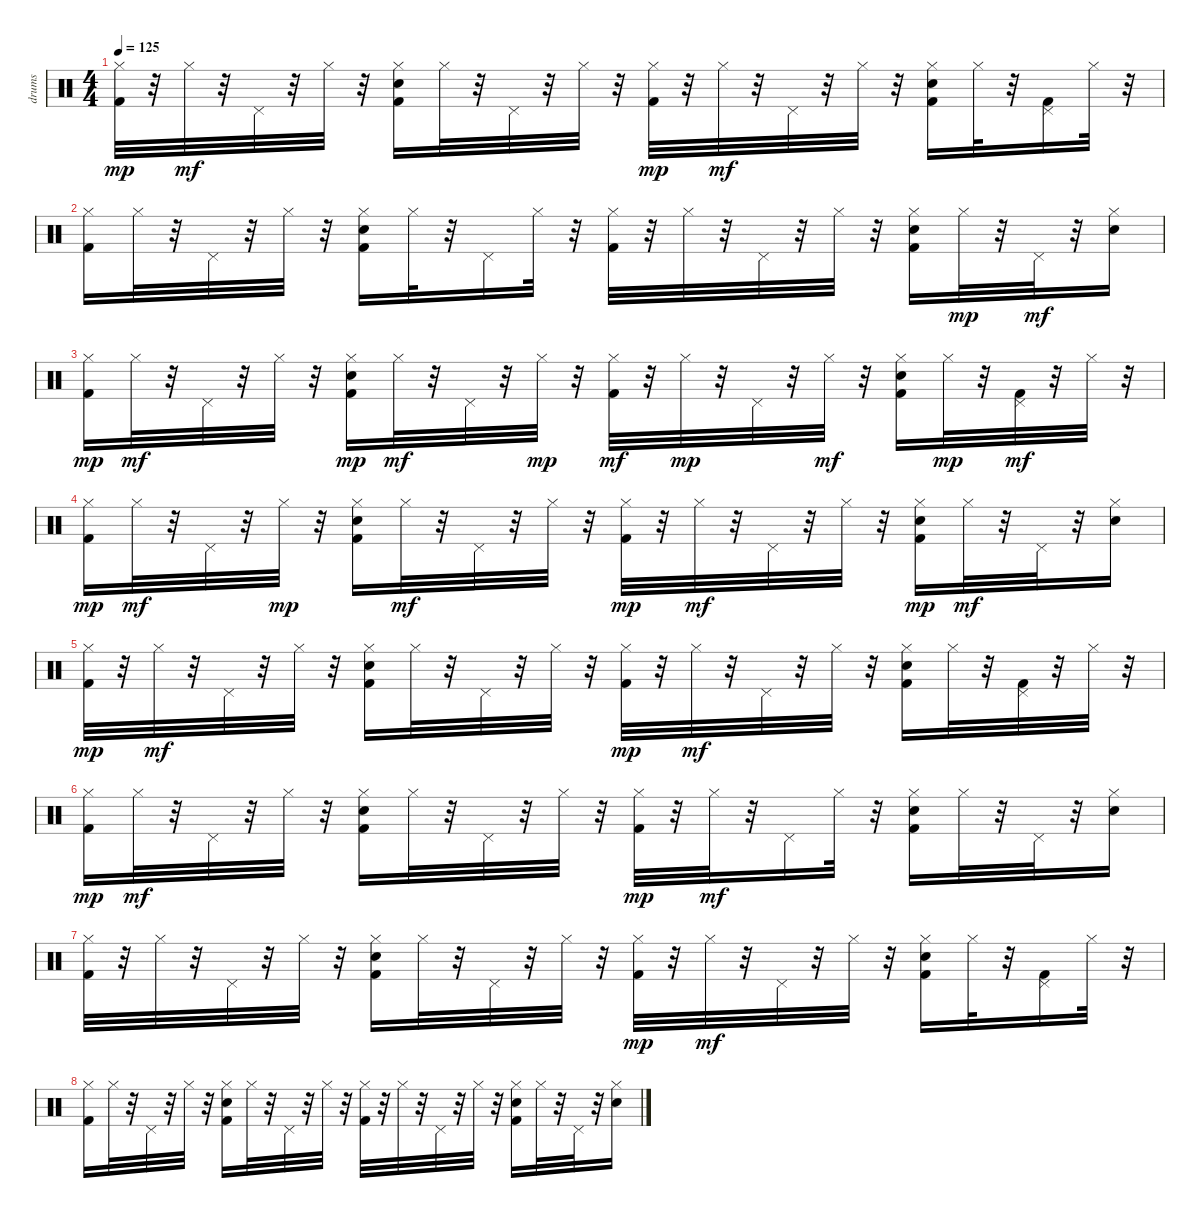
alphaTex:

\track ("drums   " "drums   ") {instrument percussion}
\staff {score}
\articulation defaults
\ts (4 4)
\tempo 125
\clef neutral
\ks c
("Kick (hit) 2" "Hi-Hat (closed)").32{dy mp} r.32 "Hi-Hat (closed)".32{dy mf} r.32 "Pedal Hi-Hat (hit)".32 r.32 "Hi-Hat (closed)".32 r.32 ("Kick (hit) 2" "Snare (hit) 2" "Hi-Hat (closed)").16 "Hi-Hat (closed)".32 r.32 "Pedal Hi-Hat (hit)".32 r.32 "Hi-Hat (closed)".32 r.32 ("Kick (hit) 2" "Hi-Hat (closed)").32{dy mp} r.32 "Hi-Hat (closed)".32{dy mf} r.32 "Pedal Hi-Hat (hit)".32 r.32 "Hi-Hat (closed)".32 r.32 ("Kick (hit) 2" "Snare (hit) 2" "Hi-Hat (closed)").16 "Hi-Hat (closed)".32 r.32 ("Kick (hit) 2" "Pedal Hi-Hat (hit)").16 "Hi-Hat (closed)".32 r.32 |
("Kick (hit) 2" "Hi-Hat (closed)").16 "Hi-Hat (closed)".32 r.32 "Pedal Hi-Hat (hit)".32 r.32 "Hi-Hat (closed)".32 r.32 ("Kick (hit) 2" "Snare (hit) 2" "Hi-Hat (closed)").16 "Hi-Hat (closed)".32 r.32 "Pedal Hi-Hat (hit)".16 "Hi-Hat (closed)".32 r.32 ("Kick (hit) 2" "Hi-Hat (closed)").32 r.32 "Hi-Hat (closed)".32 r.32 "Pedal Hi-Hat (hit)".32 r.32 "Hi-Hat (closed)".32 r.32 ("Kick (hit) 2" "Snare (hit) 2" "Hi-Hat (closed)").16 "Hi-Hat (closed)".32{dy mp} r.32 "Pedal Hi-Hat (hit)".32{dy mf} r.32 ("Snare (hit) 2" "Hi-Hat (closed)").16 |
("Kick (hit) 2" "Hi-Hat (closed)").16{dy mp} "Hi-Hat (closed)".32{dy mf} r.32 "Pedal Hi-Hat (hit)".32 r.32 "Hi-Hat (closed)".32 r.32 ("Kick (hit) 2" "Snare (hit) 2" "Hi-Hat (closed)").16{dy mp} "Hi-Hat (closed)".32{dy mf} r.32 "Pedal Hi-Hat (hit)".32 r.32 "Hi-Hat (closed)".32{dy mp} r.32 ("Kick (hit) 2" "Hi-Hat (closed)").32{dy mf} r.32 "Hi-Hat (closed)".32{dy mp} r.32 "Pedal Hi-Hat (hit)".32 r.32 "Hi-Hat (closed)".32{dy mf} r.32 ("Kick (hit) 2" "Snare (hit) 2" "Hi-Hat (closed)").16 "Hi-Hat (closed)".32{dy mp} r.32 ("Kick (hit) 2" "Pedal Hi-Hat (hit)").32{dy mf} r.32 "Hi-Hat (closed)".32 r.32 |
("Kick (hit) 2" "Hi-Hat (closed)").16{dy mp} "Hi-Hat (closed)".32{dy mf} r.32 "Pedal Hi-Hat (hit)".32 r.32 "Hi-Hat (closed)".32{dy mp} r.32 ("Kick (hit) 2" "Snare (hit) 2" "Hi-Hat (closed)").16 "Hi-Hat (closed)".32{dy mf} r.32 "Pedal Hi-Hat (hit)".32 r.32 "Hi-Hat (closed)".32 r.32 ("Kick (hit) 2" "Hi-Hat (closed)").32{dy mp} r.32 "Hi-Hat (closed)".32{dy mf} r.32 "Pedal Hi-Hat (hit)".32 r.32 "Hi-Hat (closed)".32 r.32 ("Kick (hit) 2" "Snare (hit) 2" "Hi-Hat (closed)").16{dy mp} "Hi-Hat (closed)".32{dy mf} r.32 "Pedal Hi-Hat (hit)".32 r.32 ("Snare (hit) 2" "Hi-Hat (closed)").16 |
("Kick (hit) 2" "Hi-Hat (closed)").32{dy mp} r.32 "Hi-Hat (closed)".32{dy mf} r.32 "Pedal Hi-Hat (hit)".32 r.32 "Hi-Hat (closed)".32 r.32 ("Kick (hit) 2" "Snare (hit) 2" "Hi-Hat (closed)").16 "Hi-Hat (closed)".32 r.32 "Pedal Hi-Hat (hit)".32 r.32 "Hi-Hat (closed)".32 r.32 ("Kick (hit) 2" "Hi-Hat (closed)").32{dy mp} r.32 "Hi-Hat (closed)".32{dy mf} r.32 "Pedal Hi-Hat (hit)".32 r.32 "Hi-Hat (closed)".32 r.32 ("Kick (hit) 2" "Snare (hit) 2" "Hi-Hat (closed)").16 "Hi-Hat (closed)".32 r.32 ("Kick (hit) 2" "Pedal Hi-Hat (hit)").32 r.32 "Hi-Hat (closed)".32 r.32 |
("Kick (hit) 2" "Hi-Hat (closed)").16{dy mp} "Hi-Hat (closed)".32{dy mf} r.32 "Pedal Hi-Hat (hit)".32 r.32 "Hi-Hat (closed)".32 r.32 ("Kick (hit) 2" "Snare (hit) 2" "Hi-Hat (closed)").16 "Hi-Hat (closed)".32 r.32 "Pedal Hi-Hat (hit)".32 r.32 "Hi-Hat (closed)".32 r.32 ("Kick (hit) 2" "Hi-Hat (closed)").32{dy mp} r.32 "Hi-Hat (closed)".32{dy mf} r.32 "Pedal Hi-Hat (hit)".16 "Hi-Hat (closed)".32 r.32 ("Kick (hit) 2" "Snare (hit) 2" "Hi-Hat (closed)").16 "Hi-Hat (closed)".32 r.32 "Pedal Hi-Hat (hit)".32 r.32 ("Snare (hit) 2" "Hi-Hat (closed)").16 |
("Kick (hit) 2" "Hi-Hat (closed)").32 r.32 "Hi-Hat (closed)".32 r.32 "Pedal Hi-Hat (hit)".32 r.32 "Hi-Hat (closed)".32 r.32 ("Kick (hit) 2" "Snare (hit) 2" "Hi-Hat (closed)").16 "Hi-Hat (closed)".32 r.32 "Pedal Hi-Hat (hit)".32 r.32 "Hi-Hat (closed)".32 r.32 ("Kick (hit) 2" "Hi-Hat (closed)").32{dy mp} r.32 "Hi-Hat (closed)".32{dy mf} r.32 "Pedal Hi-Hat (hit)".32 r.32 "Hi-Hat (closed)".32 r.32 ("Kick (hit) 2" "Snare (hit) 2" "Hi-Hat (closed)").16 "Hi-Hat (closed)".32 r.32 ("Kick (hit) 2" "Pedal Hi-Hat (hit)").16 "Hi-Hat (closed)".32 r.32 |
("Kick (hit) 2" "Hi-Hat (closed)").16 "Hi-Hat (closed)".32 r.32 "Pedal Hi-Hat (hit)".32 r.32 "Hi-Hat (closed)".32 r.32 ("Kick (hit) 2" "Snare (hit) 2" "Hi-Hat (closed)").16 "Hi-Hat (closed)".32 r.32 "Pedal Hi-Hat (hit)".32 r.32 "Hi-Hat (closed)".32 r.32 ("Kick (hit) 2" "Hi-Hat (closed)").32 r.32 "Hi-Hat (closed)".32 r.32 "Pedal Hi-Hat (hit)".32 r.32 "Hi-Hat (closed)".32 r.32 ("Kick (hit) 2" "Snare (hit) 2" "Hi-Hat (closed)").16 "Hi-Hat (closed)".32 r.32 "Pedal Hi-Hat (hit)".32 r.32 ("Snare (hit) 2" "Hi-Hat (closed)").16
